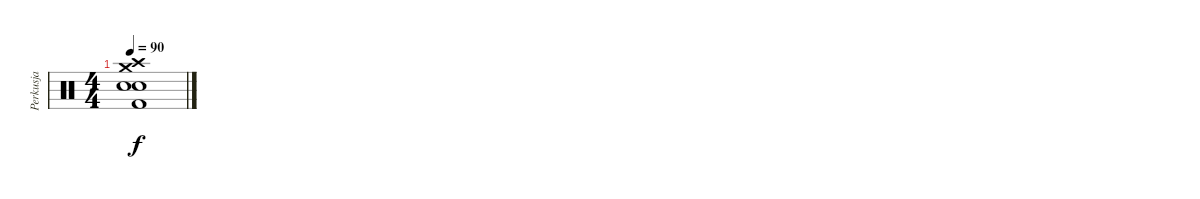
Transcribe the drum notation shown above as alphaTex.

\track ("Perkusja" "Perkusja") {instrument percussion}
\staff {score}
\articulation defaults
\ts (4 4)
\tempo 90
\clef neutral
\ks c
("Crash medium (hit)" "Crash high (hit)" "Snare (hit) 2" "Electric Snare (hit)" "Kick (hit) 2").1{dy f}
